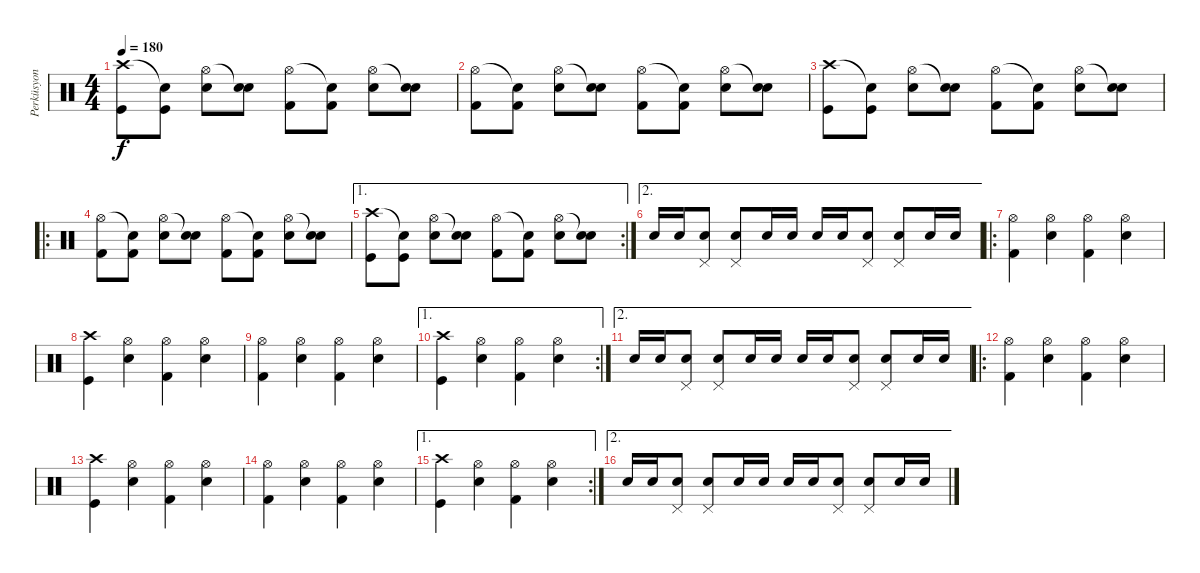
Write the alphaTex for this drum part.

\track ("Perküsyon" "Perküsyon") {instrument percussion}
\staff {score}
\articulation defaults
\ts (4 4)
\tempo 180
\clef neutral
\ks c
("Crash high (hit)" "Kick (hit)").8{dy f} ("Snare (hit)"{t} "Kick (hit)").8 ("Hi-Hat (open)" "Electric Snare (hit)").8 ("Snare (hit)"{t} "Electric Snare (hit)").8 ("Hi-Hat (open)" "Kick (hit) 2").8 ("Snare (hit)"{t} "Kick (hit) 2").8 ("Hi-Hat (open)" "Electric Snare (hit)").8 ("Snare (hit)"{t} "Electric Snare (hit)").8 |
("Hi-Hat (open)" "Kick (hit) 2").8 ("Snare (hit)"{t} "Kick (hit) 2").8 ("Hi-Hat (open)" "Electric Snare (hit)").8 ("Snare (hit)"{t} "Electric Snare (hit)").8 ("Hi-Hat (open)" "Kick (hit) 2").8 ("Snare (hit)"{t} "Kick (hit) 2").8 ("Hi-Hat (open)" "Electric Snare (hit)").8 ("Snare (hit)"{t} "Electric Snare (hit)").8 |
("Crash high (hit)" "Kick (hit)").8 ("Snare (hit)"{t} "Kick (hit)").8 ("Hi-Hat (open)" "Electric Snare (hit)").8 ("Snare (hit)"{t} "Electric Snare (hit)").8 ("Hi-Hat (open)" "Kick (hit) 2").8 ("Snare (hit)"{t} "Kick (hit) 2").8 ("Hi-Hat (open)" "Electric Snare (hit)").8 ("Snare (hit)"{t} "Electric Snare (hit)").8 |
\ro
("Hi-Hat (open)" "Kick (hit) 2").8 ("Snare (hit)"{t} "Kick (hit) 2").8 ("Hi-Hat (open)" "Electric Snare (hit)").8 ("Snare (hit)"{t} "Electric Snare (hit)").8 ("Hi-Hat (open)" "Kick (hit) 2").8 ("Snare (hit)"{t} "Kick (hit) 2").8 ("Hi-Hat (open)" "Electric Snare (hit)").8 ("Snare (hit)"{t} "Electric Snare (hit)").8 |
\ae 1
\rc 2
("Crash high (hit)" "Kick (hit)").8 ("Snare (hit)"{t} "Kick (hit)").8 ("Hi-Hat (open)" "Electric Snare (hit)").8 ("Snare (hit)"{t} "Electric Snare (hit)").8 ("Hi-Hat (open)" "Kick (hit) 2").8 ("Snare (hit)"{t} "Kick (hit) 2").8 ("Hi-Hat (open)" "Electric Snare (hit)").8 ("Snare (hit)"{t} "Electric Snare (hit)").8 |
\ae 2 "Electric Snare (hit)".16 "Electric Snare (hit)".16
("Pedal Hi-Hat (hit)" "Electric Snare (hit)").8 ("Pedal Hi-Hat (hit)" "Electric Snare (hit)").8 "Electric Snare (hit)".16 "Electric Snare (hit)".16 "Electric Snare (hit)".16 "Electric Snare (hit)".16 ("Pedal Hi-Hat (hit)" "Electric Snare (hit)").8 ("Pedal Hi-Hat (hit)" "Electric Snare (hit)").8 "Electric Snare (hit)".16 "Electric Snare (hit)".16 |
\ro
("Hi-Hat (open)" "Kick (hit) 2").4 ("Hi-Hat (open)" "Electric Snare (hit)").4 ("Hi-Hat (open)" "Kick (hit) 2").4 ("Hi-Hat (open)" "Electric Snare (hit)").4 |
("Crash high (hit)" "Kick (hit)").4 ("Hi-Hat (open)" "Electric Snare (hit)").4 ("Hi-Hat (open)" "Kick (hit) 2").4 ("Hi-Hat (open)" "Electric Snare (hit)").4 |
("Hi-Hat (open)" "Kick (hit) 2").4 ("Hi-Hat (open)" "Electric Snare (hit)").4 ("Hi-Hat (open)" "Kick (hit) 2").4 ("Hi-Hat (open)" "Electric Snare (hit)").4 |
\ae 1
\rc 2
("Crash high (hit)" "Kick (hit)").4 ("Hi-Hat (open)" "Electric Snare (hit)").4 ("Hi-Hat (open)" "Kick (hit) 2").4 ("Hi-Hat (open)" "Electric Snare (hit)").4 |
\ae 2 "Electric Snare (hit)".16 "Electric Snare (hit)".16
("Pedal Hi-Hat (hit)" "Electric Snare (hit)").8 ("Pedal Hi-Hat (hit)" "Electric Snare (hit)").8 "Electric Snare (hit)".16 "Electric Snare (hit)".16 "Electric Snare (hit)".16 "Electric Snare (hit)".16 ("Pedal Hi-Hat (hit)" "Electric Snare (hit)").8 ("Pedal Hi-Hat (hit)" "Electric Snare (hit)").8 "Electric Snare (hit)".16 "Electric Snare (hit)".16 |
\ro
("Hi-Hat (open)" "Kick (hit) 2").4 ("Hi-Hat (open)" "Electric Snare (hit)").4 ("Hi-Hat (open)" "Kick (hit) 2").4 ("Hi-Hat (open)" "Electric Snare (hit)").4 |
("Crash high (hit)" "Kick (hit)").4 ("Hi-Hat (open)" "Electric Snare (hit)").4 ("Hi-Hat (open)" "Kick (hit) 2").4 ("Hi-Hat (open)" "Electric Snare (hit)").4 |
("Hi-Hat (open)" "Kick (hit) 2").4 ("Hi-Hat (open)" "Electric Snare (hit)").4 ("Hi-Hat (open)" "Kick (hit) 2").4 ("Hi-Hat (open)" "Electric Snare (hit)").4 |
\ae 1
\rc 2
("Crash high (hit)" "Kick (hit)").4 ("Hi-Hat (open)" "Electric Snare (hit)").4 ("Hi-Hat (open)" "Kick (hit) 2").4 ("Hi-Hat (open)" "Electric Snare (hit)").4 |
\ae 2 "Electric Snare (hit)".16 "Electric Snare (hit)".16
("Pedal Hi-Hat (hit)" "Electric Snare (hit)").8 ("Pedal Hi-Hat (hit)" "Electric Snare (hit)").8 "Electric Snare (hit)".16 "Electric Snare (hit)".16 "Electric Snare (hit)".16 "Electric Snare (hit)".16 ("Pedal Hi-Hat (hit)" "Electric Snare (hit)").8 ("Pedal Hi-Hat (hit)" "Electric Snare (hit)").8 "Electric Snare (hit)".16 "Electric Snare (hit)".16
